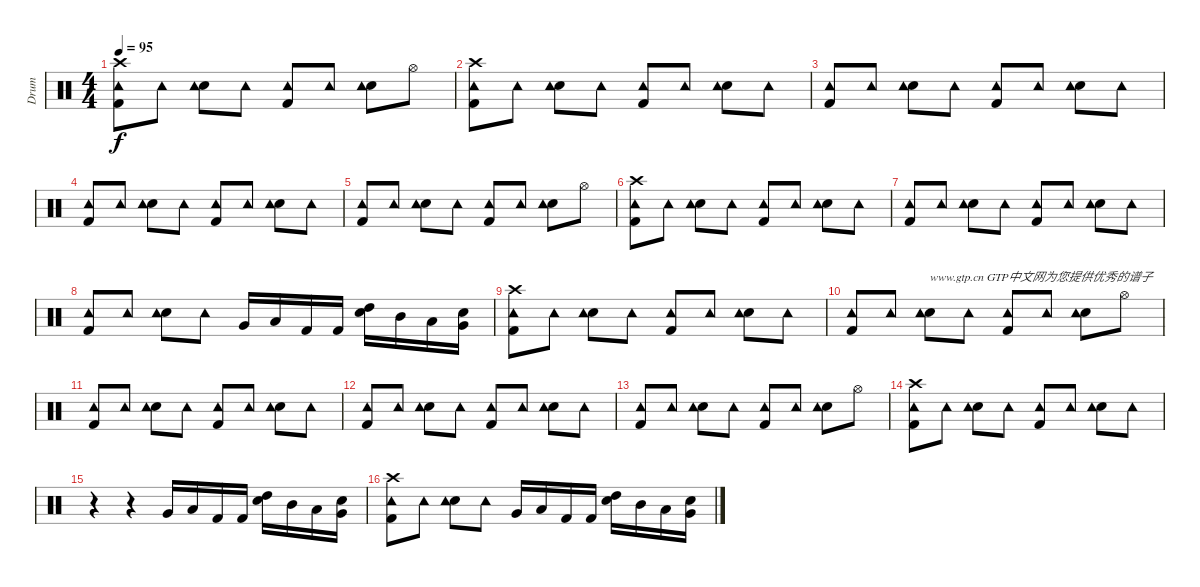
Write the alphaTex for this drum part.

\track ("Drum" "Drum") {instrument percussion}
\staff {score}
\articulation defaults
\ts (4 4)
\tempo 95
\clef neutral
\ks c
("Kick (hit) 2" "Tambourine (hit)" "Crash high (hit)").8{dy f} "Tambourine (hit)".8 ("Electric Snare (hit)" "Tambourine (hit)").8 "Tambourine (hit)".8 ("Kick (hit) 2" "Tambourine (hit)").8 "Tambourine (hit)".8 ("Electric Snare (hit)" "Tambourine (hit)").8 "Hi-Hat (open)".8 |
("Kick (hit) 2" "Tambourine (hit)" "Crash high (hit)").8 "Tambourine (hit)".8 ("Electric Snare (hit)" "Tambourine (hit)").8 "Tambourine (hit)".8 ("Kick (hit) 2" "Tambourine (hit)").8 "Tambourine (hit)".8 ("Electric Snare (hit)" "Tambourine (hit)").8 "Tambourine (hit)".8 |
("Kick (hit) 2" "Tambourine (hit)").8 "Tambourine (hit)".8 ("Electric Snare (hit)" "Tambourine (hit)").8 "Tambourine (hit)".8 ("Kick (hit) 2" "Tambourine (hit)").8 "Tambourine (hit)".8 ("Electric Snare (hit)" "Tambourine (hit)").8 "Tambourine (hit)".8 |
("Kick (hit) 2" "Tambourine (hit)").8 "Tambourine (hit)".8 ("Electric Snare (hit)" "Tambourine (hit)").8 "Tambourine (hit)".8 ("Kick (hit) 2" "Tambourine (hit)").8 "Tambourine (hit)".8 ("Electric Snare (hit)" "Tambourine (hit)").8 "Tambourine (hit)".8 |
("Kick (hit) 2" "Tambourine (hit)").8 "Tambourine (hit)".8 ("Electric Snare (hit)" "Tambourine (hit)").8 "Tambourine (hit)".8 ("Kick (hit) 2" "Tambourine (hit)").8 "Tambourine (hit)".8 ("Electric Snare (hit)" "Tambourine (hit)").8 "Hi-Hat (open)".8 |
("Kick (hit) 2" "Tambourine (hit)" "Crash high (hit)").8 "Tambourine (hit)".8 ("Electric Snare (hit)" "Tambourine (hit)").8 "Tambourine (hit)".8 ("Kick (hit) 2" "Tambourine (hit)").8 "Tambourine (hit)".8 ("Electric Snare (hit)" "Tambourine (hit)").8 "Tambourine (hit)".8 |
("Kick (hit) 2" "Tambourine (hit)").8 "Tambourine (hit)".8 ("Electric Snare (hit)" "Tambourine (hit)").8 "Tambourine (hit)".8 ("Kick (hit) 2" "Tambourine (hit)").8 "Tambourine (hit)".8 ("Electric Snare (hit)" "Tambourine (hit)").8 "Tambourine (hit)".8 |
("Kick (hit) 2" "Tambourine (hit)").8 "Tambourine (hit)".8 ("Electric Snare (hit)" "Tambourine (hit)").8 "Tambourine (hit)".8 "Very Low Tom (hit)".16 "Low Floor Tom (hit)".16 "Kick (hit) 2".16 "Kick (hit) 2".16 ("High Tom (hit)" "Snare (hit) 2").16 "Mid Tom (hit)".16 "Low Tom (hit)".16 ("Very Low Tom (hit)" "Snare (hit) 2").16 |
("Kick (hit) 2" "Tambourine (hit)" "Crash high (hit)").8 "Tambourine (hit)".8 ("Electric Snare (hit)" "Tambourine (hit)").8 "Tambourine (hit)".8 ("Kick (hit) 2" "Tambourine (hit)").8 "Tambourine (hit)".8 ("Electric Snare (hit)" "Tambourine (hit)").8 "Tambourine (hit)".8 |
("Kick (hit) 2" "Tambourine (hit)").8 "Tambourine (hit)".8 ("Electric Snare (hit)" "Tambourine (hit)").8{txt "www.gtp.cn GTP中文网为您提供优秀的谱子"} "Tambourine (hit)".8 ("Kick (hit) 2" "Tambourine (hit)").8 "Tambourine (hit)".8 ("Electric Snare (hit)" "Tambourine (hit)").8 "Hi-Hat (open)".8 |
("Kick (hit) 2" "Tambourine (hit)").8 "Tambourine (hit)".8 ("Electric Snare (hit)" "Tambourine (hit)").8 "Tambourine (hit)".8 ("Kick (hit) 2" "Tambourine (hit)").8 "Tambourine (hit)".8 ("Electric Snare (hit)" "Tambourine (hit)").8 "Tambourine (hit)".8 |
("Kick (hit) 2" "Tambourine (hit)").8 "Tambourine (hit)".8 ("Electric Snare (hit)" "Tambourine (hit)").8 "Tambourine (hit)".8 ("Kick (hit) 2" "Tambourine (hit)").8 "Tambourine (hit)".8 ("Electric Snare (hit)" "Tambourine (hit)").8 "Tambourine (hit)".8 |
("Kick (hit) 2" "Tambourine (hit)").8 "Tambourine (hit)".8 ("Electric Snare (hit)" "Tambourine (hit)").8 "Tambourine (hit)".8 ("Kick (hit) 2" "Tambourine (hit)").8 "Tambourine (hit)".8 ("Electric Snare (hit)" "Tambourine (hit)").8 "Hi-Hat (open)".8 |
("Kick (hit) 2" "Tambourine (hit)" "Crash high (hit)").8 "Tambourine (hit)".8 ("Electric Snare (hit)" "Tambourine (hit)").8 "Tambourine (hit)".8 ("Kick (hit) 2" "Tambourine (hit)").8 "Tambourine (hit)".8 ("Electric Snare (hit)" "Tambourine (hit)").8 "Tambourine (hit)".8 |
r.4 r.4 "Very Low Tom (hit)".16 "Low Floor Tom (hit)".16 "Kick (hit) 2".16 "Kick (hit) 2".16 ("High Tom (hit)" "Snare (hit) 2").16 "Mid Tom (hit)".16 "Low Tom (hit)".16 ("Very Low Tom (hit)" "Snare (hit) 2").16 |
("Kick (hit) 2" "Tambourine (hit)" "Crash high (hit)").8 "Tambourine (hit)".8 ("Electric Snare (hit)" "Tambourine (hit)").8 "Tambourine (hit)".8 "Very Low Tom (hit)".16 "Low Floor Tom (hit)".16 "Kick (hit) 2".16 "Kick (hit) 2".16 ("High Tom (hit)" "Snare (hit) 2").16 "Mid Tom (hit)".16 "Low Tom (hit)".16 ("Very Low Tom (hit)" "Snare (hit) 2").16
